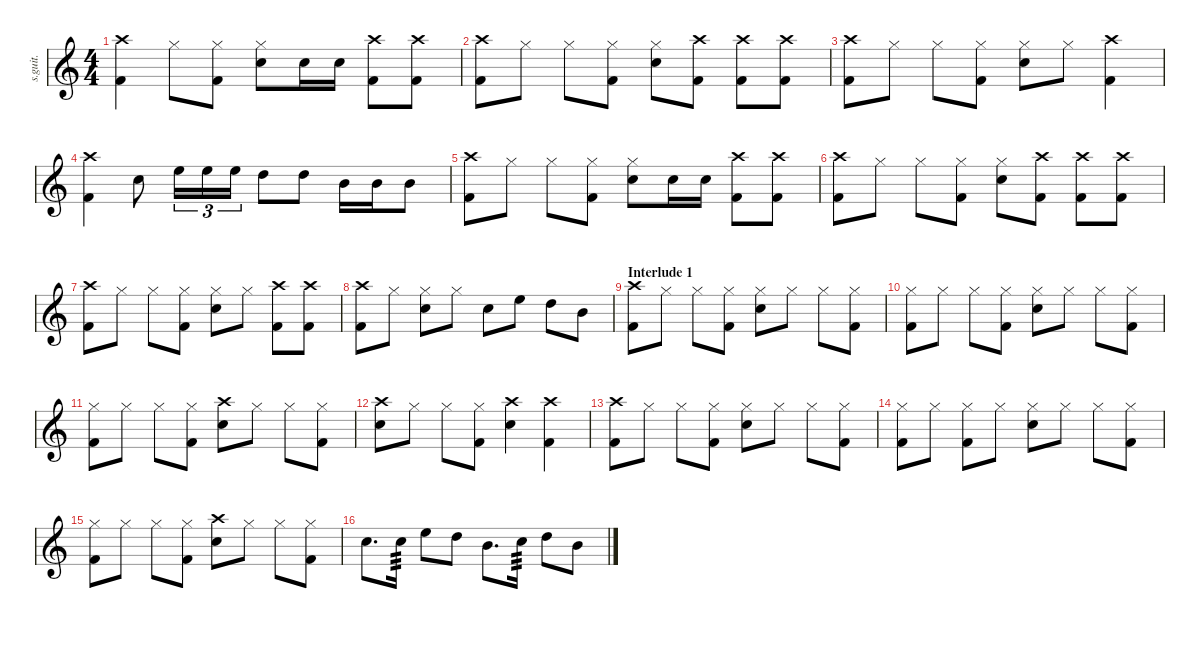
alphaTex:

\defaultSystemsLayout 4
\hideDynamics
\bracketExtendMode nobrackets
\track ("Lars Ulrich - Drumzzz" "s.guit.") {instrument percussion}
\staff {score}
\articulation defaults
\ts (4 4)
\tempo (119 hide)
\clef g2
\ks c
("Crash high (hit)" "Kick (hit) 2").4{lyrics (0 "") lyrics (1 "") lyrics (2 "") lyrics (3 "") lyrics (4 "") dy f} "Hi-Hat (closed)".8{lyrics (0 "") lyrics (1 "") lyrics (2 "") lyrics (3 "") lyrics (4 "")} ("Hi-Hat (closed)" "Kick (hit) 2").8{lyrics (0 "") lyrics (1 "") lyrics (2 "") lyrics (3 "") lyrics (4 "")} ("Hi-Hat (closed)" "Snare (hit) 2").8{lyrics (0 "") lyrics (1 "") lyrics (2 "") lyrics (3 "") lyrics (4 "")} "Snare (hit) 2".16{lyrics (0 "") lyrics (1 "") lyrics (2 "") lyrics (3 "") lyrics (4 "")} "Snare (hit) 2".16{lyrics (0 "") lyrics (1 "") lyrics (2 "") lyrics (3 "") lyrics (4 "")} ("Crash high (hit)" "Kick (hit) 2").8{lyrics (0 "") lyrics (1 "") lyrics (2 "") lyrics (3 "") lyrics (4 "")} ("Crash high (hit)" "Kick (hit) 2").8{lyrics (0 "") lyrics (1 "") lyrics (2 "") lyrics (3 "") lyrics (4 "")} |
("Crash high (hit)" "Kick (hit) 2").8{lyrics (0 "") lyrics (1 "") lyrics (2 "") lyrics (3 "") lyrics (4 "")} "Hi-Hat (closed)".8{lyrics (0 "") lyrics (1 "") lyrics (2 "") lyrics (3 "") lyrics (4 "")} "Hi-Hat (closed)".8{lyrics (0 "") lyrics (1 "") lyrics (2 "") lyrics (3 "") lyrics (4 "")} ("Hi-Hat (closed)" "Kick (hit) 2").8{lyrics (0 "") lyrics (1 "") lyrics (2 "") lyrics (3 "") lyrics (4 "")} ("Hi-Hat (closed)" "Snare (hit) 2").8{lyrics (0 "") lyrics (1 "") lyrics (2 "") lyrics (3 "") lyrics (4 "")} ("Crash high (hit)" "Kick (hit) 2").8{lyrics (0 "") lyrics (1 "") lyrics (2 "") lyrics (3 "") lyrics (4 "")} ("Crash high (hit)" "Kick (hit) 2").8{lyrics (0 "") lyrics (1 "") lyrics (2 "") lyrics (3 "") lyrics (4 "")} ("Crash high (hit)" "Kick (hit) 2").8{lyrics (0 "") lyrics (1 "") lyrics (2 "") lyrics (3 "") lyrics (4 "")} |
("Crash high (hit)" "Kick (hit) 2").8{lyrics (0 "") lyrics (1 "") lyrics (2 "") lyrics (3 "") lyrics (4 "")} "Hi-Hat (closed)".8{lyrics (0 "") lyrics (1 "") lyrics (2 "") lyrics (3 "") lyrics (4 "")} "Hi-Hat (closed)".8{lyrics (0 "") lyrics (1 "") lyrics (2 "") lyrics (3 "") lyrics (4 "")} ("Hi-Hat (closed)" "Kick (hit) 2").8{lyrics (0 "") lyrics (1 "") lyrics (2 "") lyrics (3 "") lyrics (4 "")} ("Hi-Hat (closed)" "Snare (hit) 2").8{lyrics (0 "") lyrics (1 "") lyrics (2 "") lyrics (3 "") lyrics (4 "")} "Hi-Hat (closed)".8{lyrics (0 "") lyrics (1 "") lyrics (2 "") lyrics (3 "") lyrics (4 "")} ("Crash high (hit)" "Kick (hit) 2").4{lyrics (0 "") lyrics (1 "") lyrics (2 "") lyrics (3 "") lyrics (4 "")} |
("Crash high (hit)" "Kick (hit) 2").4{lyrics (0 "") lyrics (1 "") lyrics (2 "") lyrics (3 "") lyrics (4 "")} "Snare (hit) 2".8{lyrics (0 "") lyrics (1 "") lyrics (2 "") lyrics (3 "") lyrics (4 "")} "High Floor Tom (hit)".16{tu (3 2) lyrics (0 "") lyrics (1 "") lyrics (2 "") lyrics (3 "") lyrics (4 "")} "High Floor Tom (hit)".16{tu (3 2) lyrics (0 "") lyrics (1 "") lyrics (2 "") lyrics (3 "") lyrics (4 "")} "High Floor Tom (hit)".16{tu (3 2) lyrics (0 "") lyrics (1 "") lyrics (2 "") lyrics (3 "") lyrics (4 "")} "High Tom (hit)".8{lyrics (0 "") lyrics (1 "") lyrics (2 "") lyrics (3 "") lyrics (4 "")} "High Tom (hit)".8{lyrics (0 "") lyrics (1 "") lyrics (2 "") lyrics (3 "") lyrics (4 "")} "Mid Tom (hit)".16{lyrics (0 "") lyrics (1 "") lyrics (2 "") lyrics (3 "") lyrics (4 "")} "Mid Tom (hit)".16{lyrics (0 "") lyrics (1 "") lyrics (2 "") lyrics (3 "") lyrics (4 "")} "Mid Tom (hit)".8{lyrics (0 "") lyrics (1 "") lyrics (2 "") lyrics (3 "") lyrics (4 "")} |
("Crash high (hit)" "Kick (hit) 2").8{lyrics (0 "") lyrics (1 "") lyrics (2 "") lyrics (3 "") lyrics (4 "")} "Hi-Hat (closed)".8{lyrics (0 "") lyrics (1 "") lyrics (2 "") lyrics (3 "") lyrics (4 "")} "Hi-Hat (closed)".8{lyrics (0 "") lyrics (1 "") lyrics (2 "") lyrics (3 "") lyrics (4 "")} ("Hi-Hat (closed)" "Kick (hit) 2").8{lyrics (0 "") lyrics (1 "") lyrics (2 "") lyrics (3 "") lyrics (4 "")} ("Hi-Hat (closed)" "Snare (hit) 2").8{lyrics (0 "") lyrics (1 "") lyrics (2 "") lyrics (3 "") lyrics (4 "")} "Snare (hit) 2".16{lyrics (0 "") lyrics (1 "") lyrics (2 "") lyrics (3 "") lyrics (4 "")} "Snare (hit) 2".16{lyrics (0 "") lyrics (1 "") lyrics (2 "") lyrics (3 "") lyrics (4 "")} ("Crash high (hit)" "Kick (hit) 2").8{lyrics (0 "") lyrics (1 "") lyrics (2 "") lyrics (3 "") lyrics (4 "")} ("Crash high (hit)" "Kick (hit) 2").8{lyrics (0 "") lyrics (1 "") lyrics (2 "") lyrics (3 "") lyrics (4 "")} |
("Crash high (hit)" "Kick (hit) 2").8{lyrics (0 "") lyrics (1 "") lyrics (2 "") lyrics (3 "") lyrics (4 "")} "Hi-Hat (closed)".8{lyrics (0 "") lyrics (1 "") lyrics (2 "") lyrics (3 "") lyrics (4 "")} "Hi-Hat (closed)".8{lyrics (0 "") lyrics (1 "") lyrics (2 "") lyrics (3 "") lyrics (4 "")} ("Hi-Hat (closed)" "Kick (hit) 2").8{lyrics (0 "") lyrics (1 "") lyrics (2 "") lyrics (3 "") lyrics (4 "")} ("Hi-Hat (closed)" "Snare (hit) 2").8{lyrics (0 "") lyrics (1 "") lyrics (2 "") lyrics (3 "") lyrics (4 "")} ("Crash high (hit)" "Kick (hit) 2").8{lyrics (0 "") lyrics (1 "") lyrics (2 "") lyrics (3 "") lyrics (4 "")} ("Crash high (hit)" "Kick (hit) 2").8{lyrics (0 "") lyrics (1 "") lyrics (2 "") lyrics (3 "") lyrics (4 "")} ("Crash high (hit)" "Kick (hit) 2").8{lyrics (0 "") lyrics (1 "") lyrics (2 "") lyrics (3 "") lyrics (4 "")} |
("Crash high (hit)" "Kick (hit) 2").8{lyrics (0 "") lyrics (1 "") lyrics (2 "") lyrics (3 "") lyrics (4 "")} "Hi-Hat (closed)".8{lyrics (0 "") lyrics (1 "") lyrics (2 "") lyrics (3 "") lyrics (4 "")} "Hi-Hat (closed)".8{lyrics (0 "") lyrics (1 "") lyrics (2 "") lyrics (3 "") lyrics (4 "")} ("Hi-Hat (closed)" "Kick (hit) 2").8{lyrics (0 "") lyrics (1 "") lyrics (2 "") lyrics (3 "") lyrics (4 "")} ("Hi-Hat (closed)" "Snare (hit) 2").8{lyrics (0 "") lyrics (1 "") lyrics (2 "") lyrics (3 "") lyrics (4 "")} "Hi-Hat (closed)".8{lyrics (0 "") lyrics (1 "") lyrics (2 "") lyrics (3 "") lyrics (4 "")} ("Crash high (hit)" "Kick (hit) 2").8{lyrics (0 "") lyrics (1 "") lyrics (2 "") lyrics (3 "") lyrics (4 "")} ("Crash high (hit)" "Kick (hit) 2").8{lyrics (0 "") lyrics (1 "") lyrics (2 "") lyrics (3 "") lyrics (4 "")} |
("Crash high (hit)" "Kick (hit) 2").8{lyrics (0 "") lyrics (1 "") lyrics (2 "") lyrics (3 "") lyrics (4 "")} "Hi-Hat (closed)".8{lyrics (0 "") lyrics (1 "") lyrics (2 "") lyrics (3 "") lyrics (4 "")} ("Hi-Hat (closed)" "Snare (hit) 2").8{lyrics (0 "") lyrics (1 "") lyrics (2 "") lyrics (3 "") lyrics (4 "")} "Hi-Hat (closed)".8{lyrics (0 "") lyrics (1 "") lyrics (2 "") lyrics (3 "") lyrics (4 "")} "Snare (hit) 2".8{lyrics (0 "") lyrics (1 "") lyrics (2 "") lyrics (3 "") lyrics (4 "")} "High Floor Tom (hit)".8{lyrics (0 "") lyrics (1 "") lyrics (2 "") lyrics (3 "") lyrics (4 "")} "High Tom (hit)".8{lyrics (0 "") lyrics (1 "") lyrics (2 "") lyrics (3 "") lyrics (4 "")} "Mid Tom (hit)".8{lyrics (0 "") lyrics (1 "") lyrics (2 "") lyrics (3 "") lyrics (4 "")} |
\section ("" "Interlude 1")
\tempo (113 hide)
("Crash high (hit)" "Kick (hit) 2").8{lyrics (0 "") lyrics (1 "") lyrics (2 "") lyrics (3 "") lyrics (4 "")} "Hi-Hat (closed)".8{lyrics (0 "") lyrics (1 "") lyrics (2 "") lyrics (3 "") lyrics (4 "")} "Hi-Hat (closed)".8{lyrics (0 "") lyrics (1 "") lyrics (2 "") lyrics (3 "") lyrics (4 "")} ("Hi-Hat (closed)" "Kick (hit) 2").8{lyrics (0 "") lyrics (1 "") lyrics (2 "") lyrics (3 "") lyrics (4 "")} ("Hi-Hat (closed)" "Snare (hit) 2").8{lyrics (0 "") lyrics (1 "") lyrics (2 "") lyrics (3 "") lyrics (4 "")} "Hi-Hat (closed)".8{lyrics (0 "") lyrics (1 "") lyrics (2 "") lyrics (3 "") lyrics (4 "")} "Hi-Hat (closed)".8{lyrics (0 "") lyrics (1 "") lyrics (2 "") lyrics (3 "") lyrics (4 "")} ("Hi-Hat (closed)" "Kick (hit) 2").8{lyrics (0 "") lyrics (1 "") lyrics (2 "") lyrics (3 "") lyrics (4 "")} |
("Hi-Hat (closed)" "Kick (hit) 2").8{lyrics (0 "") lyrics (1 "") lyrics (2 "") lyrics (3 "") lyrics (4 "")} "Hi-Hat (closed)".8{lyrics (0 "") lyrics (1 "") lyrics (2 "") lyrics (3 "") lyrics (4 "")} "Hi-Hat (closed)".8{lyrics (0 "") lyrics (1 "") lyrics (2 "") lyrics (3 "") lyrics (4 "")} ("Hi-Hat (closed)" "Kick (hit) 2").8{lyrics (0 "") lyrics (1 "") lyrics (2 "") lyrics (3 "") lyrics (4 "")} ("Hi-Hat (closed)" "Snare (hit) 2").8{lyrics (0 "") lyrics (1 "") lyrics (2 "") lyrics (3 "") lyrics (4 "")} "Hi-Hat (closed)".8{lyrics (0 "") lyrics (1 "") lyrics (2 "") lyrics (3 "") lyrics (4 "")} "Hi-Hat (closed)".8{lyrics (0 "") lyrics (1 "") lyrics (2 "") lyrics (3 "") lyrics (4 "")} ("Hi-Hat (closed)" "Kick (hit) 2").8{lyrics (0 "") lyrics (1 "") lyrics (2 "") lyrics (3 "") lyrics (4 "")} |
("Hi-Hat (closed)" "Kick (hit) 2").8{lyrics (0 "") lyrics (1 "") lyrics (2 "") lyrics (3 "") lyrics (4 "")} "Hi-Hat (closed)".8{lyrics (0 "") lyrics (1 "") lyrics (2 "") lyrics (3 "") lyrics (4 "")} "Hi-Hat (closed)".8{lyrics (0 "") lyrics (1 "") lyrics (2 "") lyrics (3 "") lyrics (4 "")} ("Hi-Hat (closed)" "Kick (hit) 2").8{lyrics (0 "") lyrics (1 "") lyrics (2 "") lyrics (3 "") lyrics (4 "")} ("Crash high (hit)" "Snare (hit) 2").8{lyrics (0 "") lyrics (1 "") lyrics (2 "") lyrics (3 "") lyrics (4 "")} "Hi-Hat (closed)".8{lyrics (0 "") lyrics (1 "") lyrics (2 "") lyrics (3 "") lyrics (4 "")} "Hi-Hat (closed)".8{lyrics (0 "") lyrics (1 "") lyrics (2 "") lyrics (3 "") lyrics (4 "")} ("Hi-Hat (closed)" "Kick (hit) 2").8{lyrics (0 "") lyrics (1 "") lyrics (2 "") lyrics (3 "") lyrics (4 "")} |
("Crash high (hit)" "Snare (hit) 2").8{lyrics (0 "") lyrics (1 "") lyrics (2 "") lyrics (3 "") lyrics (4 "")} "Hi-Hat (closed)".8{lyrics (0 "") lyrics (1 "") lyrics (2 "") lyrics (3 "") lyrics (4 "")} "Hi-Hat (closed)".8{lyrics (0 "") lyrics (1 "") lyrics (2 "") lyrics (3 "") lyrics (4 "")} ("Hi-Hat (closed)" "Kick (hit) 2").8{lyrics (0 "") lyrics (1 "") lyrics (2 "") lyrics (3 "") lyrics (4 "")} ("Crash high (hit)" "Snare (hit) 2").4{lyrics (0 "") lyrics (1 "") lyrics (2 "") lyrics (3 "") lyrics (4 "")} ("Crash high (hit)" "Kick (hit) 2").4{lyrics (0 "") lyrics (1 "") lyrics (2 "") lyrics (3 "") lyrics (4 "")} |
("Crash high (hit)" "Kick (hit) 2").8{lyrics (0 "") lyrics (1 "") lyrics (2 "") lyrics (3 "") lyrics (4 "")} "Hi-Hat (closed)".8{lyrics (0 "") lyrics (1 "") lyrics (2 "") lyrics (3 "") lyrics (4 "")} "Hi-Hat (closed)".8{lyrics (0 "") lyrics (1 "") lyrics (2 "") lyrics (3 "") lyrics (4 "")} ("Hi-Hat (closed)" "Kick (hit) 2").8{lyrics (0 "") lyrics (1 "") lyrics (2 "") lyrics (3 "") lyrics (4 "")} ("Hi-Hat (closed)" "Snare (hit) 2").8{lyrics (0 "") lyrics (1 "") lyrics (2 "") lyrics (3 "") lyrics (4 "")} "Hi-Hat (closed)".8{lyrics (0 "") lyrics (1 "") lyrics (2 "") lyrics (3 "") lyrics (4 "")} "Hi-Hat (closed)".8{lyrics (0 "") lyrics (1 "") lyrics (2 "") lyrics (3 "") lyrics (4 "")} ("Hi-Hat (closed)" "Kick (hit) 2").8{lyrics (0 "") lyrics (1 "") lyrics (2 "") lyrics (3 "") lyrics (4 "")} |
("Hi-Hat (closed)" "Kick (hit) 2").8{lyrics (0 "") lyrics (1 "") lyrics (2 "") lyrics (3 "") lyrics (4 "")} "Hi-Hat (closed)".8{lyrics (0 "") lyrics (1 "") lyrics (2 "") lyrics (3 "") lyrics (4 "")} ("Hi-Hat (closed)" "Kick (hit) 2").8{lyrics (0 "") lyrics (1 "") lyrics (2 "") lyrics (3 "") lyrics (4 "")} "Hi-Hat (closed)".8{lyrics (0 "") lyrics (1 "") lyrics (2 "") lyrics (3 "") lyrics (4 "")} ("Hi-Hat (closed)" "Snare (hit) 2").8{lyrics (0 "") lyrics (1 "") lyrics (2 "") lyrics (3 "") lyrics (4 "")} "Hi-Hat (closed)".8{lyrics (0 "") lyrics (1 "") lyrics (2 "") lyrics (3 "") lyrics (4 "")} "Hi-Hat (closed)".8{lyrics (0 "") lyrics (1 "") lyrics (2 "") lyrics (3 "") lyrics (4 "")} ("Hi-Hat (closed)" "Kick (hit) 2").8{lyrics (0 "") lyrics (1 "") lyrics (2 "") lyrics (3 "") lyrics (4 "")} |
("Hi-Hat (closed)" "Kick (hit) 2").8{lyrics (0 "") lyrics (1 "") lyrics (2 "") lyrics (3 "") lyrics (4 "")} "Hi-Hat (closed)".8{lyrics (0 "") lyrics (1 "") lyrics (2 "") lyrics (3 "") lyrics (4 "")} "Hi-Hat (closed)".8{lyrics (0 "") lyrics (1 "") lyrics (2 "") lyrics (3 "") lyrics (4 "")} ("Hi-Hat (closed)" "Kick (hit) 2").8{lyrics (0 "") lyrics (1 "") lyrics (2 "") lyrics (3 "") lyrics (4 "")} ("Crash high (hit)" "Snare (hit) 2").8{lyrics (0 "") lyrics (1 "") lyrics (2 "") lyrics (3 "") lyrics (4 "")} "Hi-Hat (closed)".8{lyrics (0 "") lyrics (1 "") lyrics (2 "") lyrics (3 "") lyrics (4 "")} "Hi-Hat (closed)".8{lyrics (0 "") lyrics (1 "") lyrics (2 "") lyrics (3 "") lyrics (4 "")} ("Hi-Hat (closed)" "Kick (hit) 2").8{lyrics (0 "") lyrics (1 "") lyrics (2 "") lyrics (3 "") lyrics (4 "")} |
"Snare (hit) 2".8{d lyrics (0 "") lyrics (1 "") lyrics (2 "") lyrics (3 "") lyrics (4 "")} "Snare (hit) 2".16{lyrics (0 "") lyrics (1 "") lyrics (2 "") lyrics (3 "") lyrics (4 "") tp 3} "High Floor Tom (hit)".8{lyrics (0 "") lyrics (1 "") lyrics (2 "") lyrics (3 "") lyrics (4 "")} "High Tom (hit)".8{lyrics (0 "") lyrics (1 "") lyrics (2 "") lyrics (3 "") lyrics (4 "")} "Mid Tom (hit)".8{d lyrics (0 "") lyrics (1 "") lyrics (2 "") lyrics (3 "") lyrics (4 "")} "Snare (hit) 2".16{lyrics (0 "") lyrics (1 "") lyrics (2 "") lyrics (3 "") lyrics (4 "") tp 3} "High Tom (hit)".8{lyrics (0 "") lyrics (1 "") lyrics (2 "") lyrics (3 "") lyrics (4 "")} "Mid Tom (hit)".8{lyrics (0 "") lyrics (1 "") lyrics (2 "") lyrics (3 "") lyrics (4 "")}
